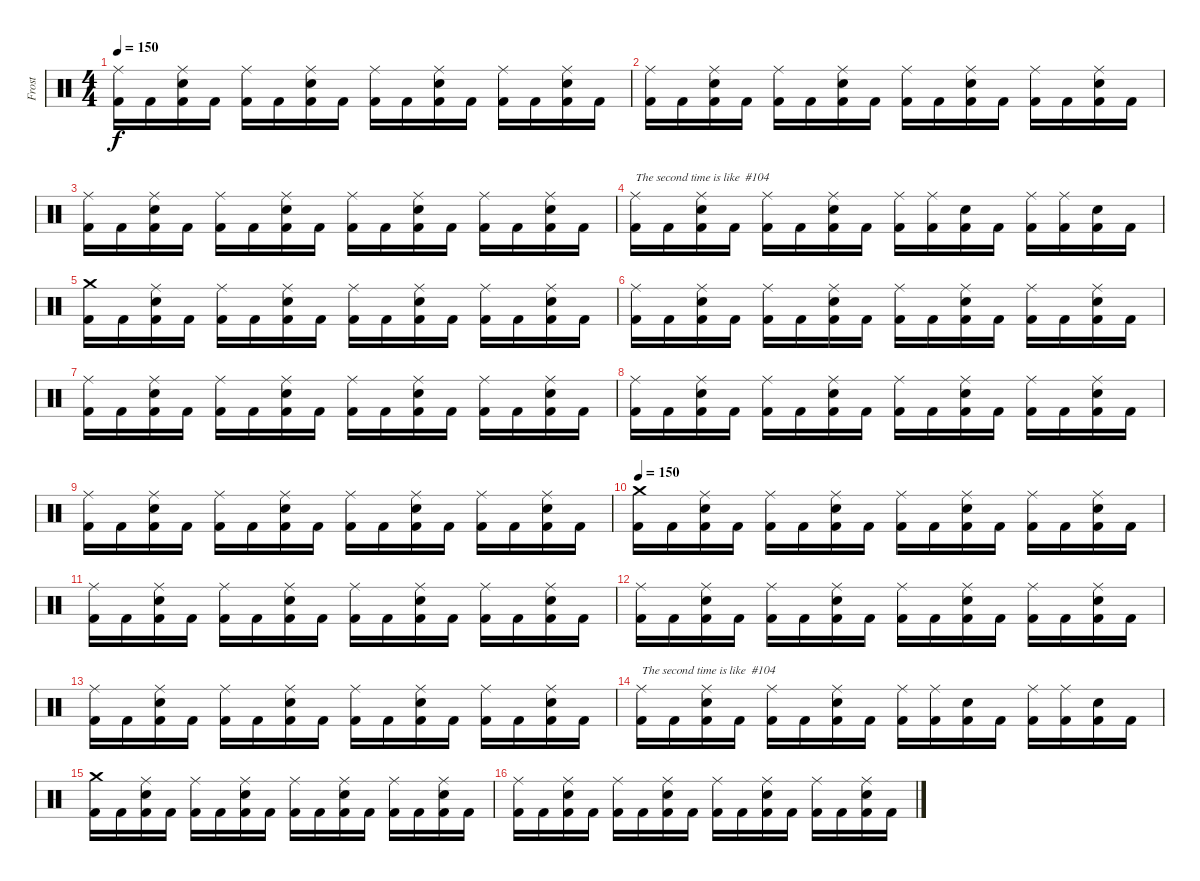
\track ("Frost" "Frost") {instrument percussion}
\staff {score}
\articulation defaults
\ts (4 4)
\tempo 150
\clef neutral
\ks c
("Ride (middle)" "Kick (hit) 2").16{dy f} "Kick (hit) 2".16 ("Ride (middle)" "Electric Snare (hit)" "Kick (hit) 2").16 "Kick (hit) 2".16 ("Ride (middle)" "Kick (hit) 2").16 "Kick (hit) 2".16 ("Ride (middle)" "Electric Snare (hit)" "Kick (hit) 2").16 "Kick (hit) 2".16 ("Ride (middle)" "Kick (hit) 2").16 "Kick (hit) 2".16 ("Ride (middle)" "Electric Snare (hit)" "Kick (hit) 2").16 "Kick (hit) 2".16 ("Ride (middle)" "Kick (hit) 2").16 "Kick (hit) 2".16 ("Ride (middle)" "Electric Snare (hit)" "Kick (hit) 2").16 "Kick (hit) 2".16 |
("Ride (middle)" "Kick (hit) 2").16 "Kick (hit) 2".16 ("Ride (middle)" "Electric Snare (hit)" "Kick (hit) 2").16 "Kick (hit) 2".16 ("Ride (middle)" "Kick (hit) 2").16 "Kick (hit) 2".16 ("Ride (middle)" "Electric Snare (hit)" "Kick (hit) 2").16 "Kick (hit) 2".16 ("Ride (middle)" "Kick (hit) 2").16 "Kick (hit) 2".16 ("Ride (middle)" "Electric Snare (hit)" "Kick (hit) 2").16 "Kick (hit) 2".16 ("Ride (middle)" "Kick (hit) 2").16 "Kick (hit) 2".16 ("Ride (middle)" "Electric Snare (hit)" "Kick (hit) 2").16 "Kick (hit) 2".16 |
("Ride (middle)" "Kick (hit) 2").16 "Kick (hit) 2".16 ("Ride (middle)" "Electric Snare (hit)" "Kick (hit) 2").16 "Kick (hit) 2".16 ("Ride (middle)" "Kick (hit) 2").16 "Kick (hit) 2".16 ("Ride (middle)" "Electric Snare (hit)" "Kick (hit) 2").16 "Kick (hit) 2".16 ("Ride (middle)" "Kick (hit) 2").16 "Kick (hit) 2".16 ("Ride (middle)" "Electric Snare (hit)" "Kick (hit) 2").16 "Kick (hit) 2".16 ("Ride (middle)" "Kick (hit) 2").16 "Kick (hit) 2".16 ("Ride (middle)" "Electric Snare (hit)" "Kick (hit) 2").16 "Kick (hit) 2".16 |
("Ride (middle)" "Kick (hit) 2").16{txt "The second time is like  #104"} "Kick (hit) 2".16 ("Ride (middle)" "Electric Snare (hit)" "Kick (hit) 2").16 "Kick (hit) 2".16 ("Ride (middle)" "Kick (hit) 2").16 "Kick (hit) 2".16 ("Ride (middle)" "Electric Snare (hit)" "Kick (hit) 2").16 "Kick (hit) 2".16 ("Ride (middle)" "Kick (hit) 2").16 ("Ride (middle)" "Kick (hit) 2").16 ("Electric Snare (hit)" "Kick (hit) 2").16 "Kick (hit) 2".16 ("Ride (middle)" "Kick (hit) 2").16 ("Ride (middle)" "Kick (hit) 2").16 ("Electric Snare (hit)" "Kick (hit) 2").16 "Kick (hit) 2".16 |
("Crash medium (hit)" "Kick (hit) 2").16 "Kick (hit) 2".16 ("Ride (middle)" "Electric Snare (hit)" "Kick (hit) 2").16 "Kick (hit) 2".16 ("Ride (middle)" "Kick (hit) 2").16 "Kick (hit) 2".16 ("Ride (middle)" "Electric Snare (hit)" "Kick (hit) 2").16 "Kick (hit) 2".16 ("Ride (middle)" "Kick (hit) 2").16 "Kick (hit) 2".16 ("Ride (middle)" "Electric Snare (hit)" "Kick (hit) 2").16 "Kick (hit) 2".16 ("Ride (middle)" "Kick (hit) 2").16 "Kick (hit) 2".16 ("Ride (middle)" "Electric Snare (hit)" "Kick (hit) 2").16 "Kick (hit) 2".16 |
("Ride (middle)" "Kick (hit) 2").16 "Kick (hit) 2".16 ("Ride (middle)" "Electric Snare (hit)" "Kick (hit) 2").16 "Kick (hit) 2".16 ("Ride (middle)" "Kick (hit) 2").16 "Kick (hit) 2".16 ("Ride (middle)" "Electric Snare (hit)" "Kick (hit) 2").16 "Kick (hit) 2".16 ("Ride (middle)" "Kick (hit) 2").16 "Kick (hit) 2".16 ("Ride (middle)" "Electric Snare (hit)" "Kick (hit) 2").16 "Kick (hit) 2".16 ("Ride (middle)" "Kick (hit) 2").16 "Kick (hit) 2".16 ("Ride (middle)" "Electric Snare (hit)" "Kick (hit) 2").16 "Kick (hit) 2".16 |
("Ride (middle)" "Kick (hit) 2").16 "Kick (hit) 2".16 ("Ride (middle)" "Electric Snare (hit)" "Kick (hit) 2").16 "Kick (hit) 2".16 ("Ride (middle)" "Kick (hit) 2").16 "Kick (hit) 2".16 ("Ride (middle)" "Electric Snare (hit)" "Kick (hit) 2").16 "Kick (hit) 2".16 ("Ride (middle)" "Kick (hit) 2").16 "Kick (hit) 2".16 ("Ride (middle)" "Electric Snare (hit)" "Kick (hit) 2").16 "Kick (hit) 2".16 ("Ride (middle)" "Kick (hit) 2").16 "Kick (hit) 2".16 ("Ride (middle)" "Electric Snare (hit)" "Kick (hit) 2").16 "Kick (hit) 2".16 |
("Ride (middle)" "Kick (hit) 2").16 "Kick (hit) 2".16 ("Ride (middle)" "Electric Snare (hit)" "Kick (hit) 2").16 "Kick (hit) 2".16 ("Ride (middle)" "Kick (hit) 2").16 "Kick (hit) 2".16 ("Ride (middle)" "Electric Snare (hit)" "Kick (hit) 2").16 "Kick (hit) 2".16 ("Ride (middle)" "Kick (hit) 2").16 "Kick (hit) 2".16 ("Ride (middle)" "Electric Snare (hit)" "Kick (hit) 2").16 "Kick (hit) 2".16 ("Ride (middle)" "Kick (hit) 2").16 "Kick (hit) 2".16 ("Ride (middle)" "Electric Snare (hit)" "Kick (hit) 2").16 "Kick (hit) 2".16 |
("Ride (middle)" "Kick (hit) 2").16 "Kick (hit) 2".16 ("Ride (middle)" "Electric Snare (hit)" "Kick (hit) 2").16 "Kick (hit) 2".16 ("Ride (middle)" "Kick (hit) 2").16 "Kick (hit) 2".16 ("Ride (middle)" "Electric Snare (hit)" "Kick (hit) 2").16 "Kick (hit) 2".16 ("Ride (middle)" "Kick (hit) 2").16 "Kick (hit) 2".16 ("Ride (middle)" "Electric Snare (hit)" "Kick (hit) 2").16 "Kick (hit) 2".16 ("Ride (middle)" "Kick (hit) 2").16 "Kick (hit) 2".16 ("Ride (middle)" "Electric Snare (hit)" "Kick (hit) 2").16 "Kick (hit) 2".16 |
\tempo 150
("Crash medium (hit)" "Kick (hit) 2").16 "Kick (hit) 2".16 ("Ride (middle)" "Electric Snare (hit)" "Kick (hit) 2").16 "Kick (hit) 2".16 ("Ride (middle)" "Kick (hit) 2").16 "Kick (hit) 2".16 ("Ride (middle)" "Electric Snare (hit)" "Kick (hit) 2").16 "Kick (hit) 2".16 ("Ride (middle)" "Kick (hit) 2").16 "Kick (hit) 2".16 ("Ride (middle)" "Electric Snare (hit)" "Kick (hit) 2").16 "Kick (hit) 2".16 ("Ride (middle)" "Kick (hit) 2").16 "Kick (hit) 2".16 ("Ride (middle)" "Electric Snare (hit)" "Kick (hit) 2").16 "Kick (hit) 2".16 |
("Ride (middle)" "Kick (hit) 2").16 "Kick (hit) 2".16 ("Ride (middle)" "Electric Snare (hit)" "Kick (hit) 2").16 "Kick (hit) 2".16 ("Ride (middle)" "Kick (hit) 2").16 "Kick (hit) 2".16 ("Ride (middle)" "Electric Snare (hit)" "Kick (hit) 2").16 "Kick (hit) 2".16 ("Ride (middle)" "Kick (hit) 2").16 "Kick (hit) 2".16 ("Ride (middle)" "Electric Snare (hit)" "Kick (hit) 2").16 "Kick (hit) 2".16 ("Ride (middle)" "Kick (hit) 2").16 "Kick (hit) 2".16 ("Ride (middle)" "Electric Snare (hit)" "Kick (hit) 2").16 "Kick (hit) 2".16 |
("Ride (middle)" "Kick (hit) 2").16 "Kick (hit) 2".16 ("Ride (middle)" "Electric Snare (hit)" "Kick (hit) 2").16 "Kick (hit) 2".16 ("Ride (middle)" "Kick (hit) 2").16 "Kick (hit) 2".16 ("Ride (middle)" "Electric Snare (hit)" "Kick (hit) 2").16 "Kick (hit) 2".16 ("Ride (middle)" "Kick (hit) 2").16 "Kick (hit) 2".16 ("Ride (middle)" "Electric Snare (hit)" "Kick (hit) 2").16 "Kick (hit) 2".16 ("Ride (middle)" "Kick (hit) 2").16 "Kick (hit) 2".16 ("Ride (middle)" "Electric Snare (hit)" "Kick (hit) 2").16 "Kick (hit) 2".16 |
("Ride (middle)" "Kick (hit) 2").16 "Kick (hit) 2".16 ("Ride (middle)" "Electric Snare (hit)" "Kick (hit) 2").16 "Kick (hit) 2".16 ("Ride (middle)" "Kick (hit) 2").16 "Kick (hit) 2".16 ("Ride (middle)" "Electric Snare (hit)" "Kick (hit) 2").16 "Kick (hit) 2".16 ("Ride (middle)" "Kick (hit) 2").16 "Kick (hit) 2".16 ("Ride (middle)" "Electric Snare (hit)" "Kick (hit) 2").16 "Kick (hit) 2".16 ("Ride (middle)" "Kick (hit) 2").16 "Kick (hit) 2".16 ("Ride (middle)" "Electric Snare (hit)" "Kick (hit) 2").16 "Kick (hit) 2".16 |
("Ride (middle)" "Kick (hit) 2").16{txt "The second time is like  #104"} "Kick (hit) 2".16 ("Ride (middle)" "Electric Snare (hit)" "Kick (hit) 2").16 "Kick (hit) 2".16 ("Ride (middle)" "Kick (hit) 2").16 "Kick (hit) 2".16 ("Ride (middle)" "Electric Snare (hit)" "Kick (hit) 2").16 "Kick (hit) 2".16 ("Ride (middle)" "Kick (hit) 2").16 ("Ride (middle)" "Kick (hit) 2").16 ("Electric Snare (hit)" "Kick (hit) 2").16 "Kick (hit) 2".16 ("Ride (middle)" "Kick (hit) 2").16 ("Ride (middle)" "Kick (hit) 2").16 ("Electric Snare (hit)" "Kick (hit) 2").16 "Kick (hit) 2".16 |
("Crash medium (hit)" "Kick (hit) 2").16 "Kick (hit) 2".16 ("Ride (middle)" "Electric Snare (hit)" "Kick (hit) 2").16 "Kick (hit) 2".16 ("Ride (middle)" "Kick (hit) 2").16 "Kick (hit) 2".16 ("Ride (middle)" "Electric Snare (hit)" "Kick (hit) 2").16 "Kick (hit) 2".16 ("Ride (middle)" "Kick (hit) 2").16 "Kick (hit) 2".16 ("Ride (middle)" "Electric Snare (hit)" "Kick (hit) 2").16 "Kick (hit) 2".16 ("Ride (middle)" "Kick (hit) 2").16 "Kick (hit) 2".16 ("Ride (middle)" "Electric Snare (hit)" "Kick (hit) 2").16 "Kick (hit) 2".16 |
("Ride (middle)" "Kick (hit) 2").16 "Kick (hit) 2".16 ("Ride (middle)" "Electric Snare (hit)" "Kick (hit) 2").16 "Kick (hit) 2".16 ("Ride (middle)" "Kick (hit) 2").16 "Kick (hit) 2".16 ("Ride (middle)" "Electric Snare (hit)" "Kick (hit) 2").16 "Kick (hit) 2".16 ("Ride (middle)" "Kick (hit) 2").16 "Kick (hit) 2".16 ("Ride (middle)" "Electric Snare (hit)" "Kick (hit) 2").16 "Kick (hit) 2".16 ("Ride (middle)" "Kick (hit) 2").16 "Kick (hit) 2".16 ("Ride (middle)" "Electric Snare (hit)" "Kick (hit) 2").16 "Kick (hit) 2".16
